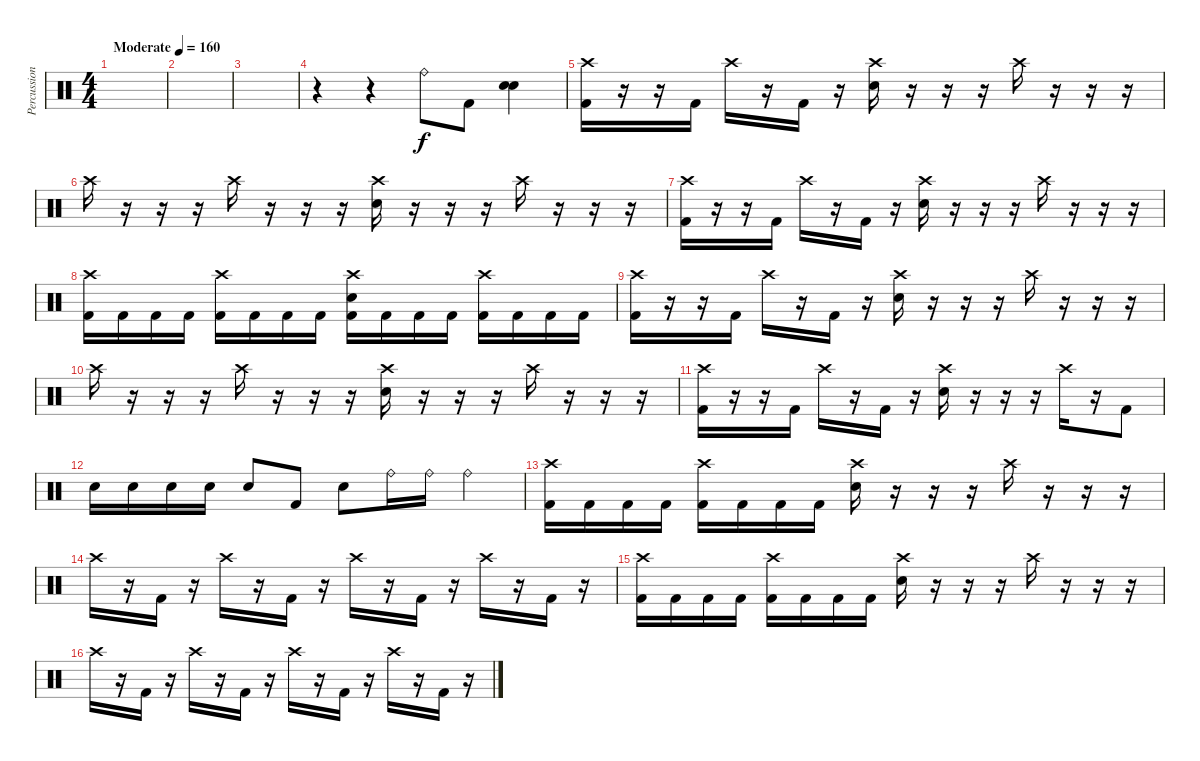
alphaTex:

\track ("Percussion" "Percussion") {instrument percussion}
\staff {score}
\articulation defaults
\ts (4 4)
\tempo (160 "Moderate")
\clef neutral
\ks c
|
|
|
r.4 r.4 "Ride (bell)".8 "Kick (hit) 2".8 ("Snare (hit) 2" "Snare (hit) 2").4{bd 240} |
("Crash high (hit)" "Kick (hit) 2").16 r.16 r.16 "Kick (hit) 2".16 "Crash high (hit)".16 r.16 "Kick (hit) 2".16 r.16 ("Crash high (hit)" "Snare (hit) 2").16 r.16 r.16 r.16 "Crash high (hit)".16 r.16 r.16 r.16 |
"Crash high (hit)".16 r.16 r.16 r.16 "Crash high (hit)".16 r.16 r.16 r.16 ("Crash high (hit)" "Snare (hit) 2").16 r.16 r.16 r.16 "Crash high (hit)".16 r.16 r.16 r.16 |
("Crash high (hit)" "Kick (hit) 2").16 r.16 r.16 "Kick (hit) 2".16 "Crash high (hit)".16 r.16 "Kick (hit) 2".16 r.16 ("Crash high (hit)" "Snare (hit) 2").16 r.16 r.16 r.16 "Crash high (hit)".16 r.16 r.16 r.16 |
("Crash high (hit)" "Kick (hit) 2").16 "Kick (hit) 2".16 "Kick (hit) 2".16 "Kick (hit) 2".16 ("Crash high (hit)" "Kick (hit) 2").16 "Kick (hit) 2".16 "Kick (hit) 2".16 "Kick (hit) 2".16 ("Crash high (hit)" "Snare (hit) 2" "Kick (hit) 2").16 "Kick (hit) 2".16 "Kick (hit) 2".16 "Kick (hit) 2".16 ("Crash high (hit)" "Kick (hit) 2").16 "Kick (hit) 2".16 "Kick (hit) 2".16 "Kick (hit) 2".16 |
("Crash high (hit)" "Kick (hit) 2").16 r.16 r.16 "Kick (hit) 2".16 "Crash high (hit)".16 r.16 "Kick (hit) 2".16 r.16 ("Crash high (hit)" "Snare (hit) 2").16 r.16 r.16 r.16 "Crash high (hit)".16 r.16 r.16 r.16 |
"Crash high (hit)".16 r.16 r.16 r.16 "Crash high (hit)".16 r.16 r.16 r.16 ("Crash high (hit)" "Snare (hit) 2").16 r.16 r.16 r.16 "Crash high (hit)".16 r.16 r.16 r.16 |
("Crash high (hit)" "Kick (hit) 2").16 r.16 r.16 "Kick (hit) 2".16 "Crash high (hit)".16 r.16 "Kick (hit) 2".16 r.16 ("Crash high (hit)" "Snare (hit) 2").16 r.16 r.16 r.16 "Crash high (hit)".16 r.16 "Kick (hit) 2".8 |
"Snare (hit) 2".16 "Snare (hit) 2".16 "Snare (hit) 2".16 "Snare (hit) 2".16 "Snare (hit) 2".8 "Kick (hit) 2".8 "Snare (hit) 2".8 "Ride (bell)".16 "Ride (bell)".16 "Ride (bell)".4 |
("Crash high (hit)" "Kick (hit) 2").16 "Kick (hit) 2".16 "Kick (hit) 2".16 "Kick (hit) 2".16 ("Crash high (hit)" "Kick (hit) 2").16 "Kick (hit) 2".16 "Kick (hit) 2".16 "Kick (hit) 2".16 ("Crash high (hit)" "Snare (hit) 2").16 r.16 r.16 r.16 "Crash high (hit)".16 r.16 r.16 r.16 |
"Crash high (hit)".16 r.16 "Kick (hit) 2".16 r.16 "Crash high (hit)".16 r.16 "Kick (hit) 2".16 r.16 "Crash high (hit)".16 r.16 "Kick (hit) 2".16 r.16 "Crash high (hit)".16 r.16 "Kick (hit) 2".16 r.16 |
("Crash high (hit)" "Kick (hit) 2").16 "Kick (hit) 2".16 "Kick (hit) 2".16 "Kick (hit) 2".16 ("Crash high (hit)" "Kick (hit) 2").16 "Kick (hit) 2".16 "Kick (hit) 2".16 "Kick (hit) 2".16 ("Crash high (hit)" "Snare (hit) 2").16 r.16 r.16 r.16 "Crash high (hit)".16 r.16 r.16 r.16 |
"Crash high (hit)".16 r.16 "Kick (hit) 2".16 r.16 "Crash high (hit)".16 r.16 "Kick (hit) 2".16 r.16 "Crash high (hit)".16 r.16 "Kick (hit) 2".16 r.16 "Crash high (hit)".16 r.16 "Kick (hit) 2".16 r.16
